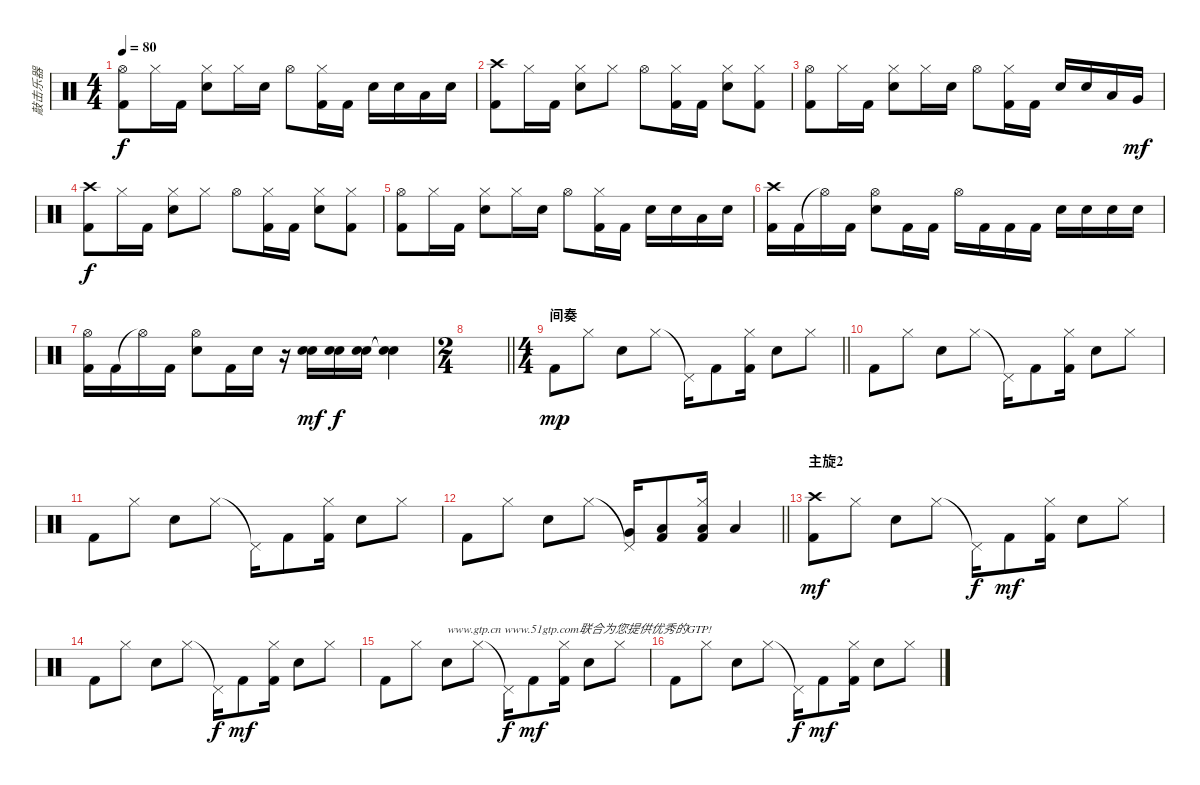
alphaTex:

\track ("敲击乐器" "敲击乐器") {instrument percussion}
\staff {score}
\articulation defaults
\ts (4 4)
\tempo 80
\clef neutral
\ks c
("Hi-Hat (open)" "Kick (hit) 2").8{dy f} "Hi-Hat (closed)".16 "Kick (hit) 2".16 ("Hi-Hat (closed)" "Snare (hit) 2").8 "Hi-Hat (closed)".16 "Snare (hit) 2".16 "Hi-Hat (open)".8 ("Hi-Hat (closed)" "Kick (hit) 2").16 "Kick (hit) 2".16 "Snare (hit) 2".16 "Snare (hit) 2".16 "Low Tom (hit)".16 "Snare (hit) 2".16 |
("Crash high (hit)" "Kick (hit) 2").8 "Hi-Hat (closed)".16 "Kick (hit) 2".16 ("Hi-Hat (closed)" "Snare (hit) 2").8 "Hi-Hat (closed)".8 "Hi-Hat (open)".8 ("Hi-Hat (closed)" "Kick (hit) 2").16 "Kick (hit) 2".16 ("Hi-Hat (closed)" "Snare (hit) 2").8 ("Hi-Hat (closed)" "Kick (hit) 2").8 |
("Hi-Hat (open)" "Kick (hit) 2").8 "Hi-Hat (closed)".16 "Kick (hit) 2".16 ("Hi-Hat (closed)" "Snare (hit) 2").8 "Hi-Hat (closed)".16 "Snare (hit) 2".16 "Hi-Hat (open)".8 ("Hi-Hat (closed)" "Kick (hit) 2").16 "Kick (hit) 2".16 "Snare (hit) 2".16 "Snare (hit) 2".16 "Low Tom (hit)".16 "Very Low Tom (hit)".16{dy mf} |
("Crash high (hit)" "Kick (hit) 2").8{dy f} "Hi-Hat (closed)".16 "Kick (hit) 2".16 ("Hi-Hat (closed)" "Snare (hit) 2").8 "Hi-Hat (closed)".8 "Hi-Hat (open)".8 ("Hi-Hat (closed)" "Kick (hit) 2").16 "Kick (hit) 2".16 ("Hi-Hat (closed)" "Snare (hit) 2").8 ("Hi-Hat (closed)" "Kick (hit) 2").8 |
("Hi-Hat (open)" "Kick (hit) 2").8 "Hi-Hat (closed)".16 "Kick (hit) 2".16 ("Hi-Hat (closed)" "Snare (hit) 2").8 "Hi-Hat (closed)".16 "Snare (hit) 2".16 "Hi-Hat (open)".8 ("Hi-Hat (closed)" "Kick (hit) 2").16 "Kick (hit) 2".16 "Snare (hit) 2".16 "Snare (hit) 2".16 "Low Tom (hit)".16 "Snare (hit) 2".16 |
("Crash high (hit)" "Kick (hit) 2").16 "Kick (hit) 2".16 "Hi-Hat (open)"{t}.16 "Kick (hit) 2".16 ("Hi-Hat (open)" "Snare (hit) 2").8 "Kick (hit) 2".16 "Kick (hit) 2".16 "Hi-Hat (open)".16 "Kick (hit) 2".16 "Kick (hit) 2".16 "Kick (hit) 2".16 "Snare (hit) 2".16 "Snare (hit) 2".16 "Snare (hit) 2".16 "Snare (hit) 2".16 |
("Hi-Hat (open)" "Kick (hit) 2").16 "Kick (hit) 2".16 "Hi-Hat (open)"{t}.16 "Kick (hit) 2".16 ("Hi-Hat (open)" "Snare (hit) 2").8 "Kick (hit) 2".16 "Snare (hit) 2".16 r.16 ("Electric Snare (hit)" "Snare (hit) 2").16{dy mf} ("Electric Snare (hit)" "Snare (hit) 2").16{dy f} ("Electric Snare (hit)" "Snare (hit) 2").16 ("Electric Snare (hit)"{t} "Snare (hit) 2"{t}).4 |
\ts (2 4)
\barLineRight lightlight
|
\ts (4 4)
\section ("" "间奏")
\barLineRight lightlight "Kick (hit) 2".8{dy mp} "Hi-Hat (closed)".8 "Snare (hit) 2".8 "Hi-Hat (closed)".8 "Pedal Hi-Hat (hit)"{t}.16 "Kick (hit) 2".8
("Hi-Hat (closed)" "Kick (hit) 2").16 "Snare (hit) 2".8 "Hi-Hat (closed)".8 |
"Kick (hit) 2".8 "Hi-Hat (closed)".8 "Snare (hit) 2".8 "Hi-Hat (closed)".8 "Pedal Hi-Hat (hit)"{t}.16 "Kick (hit) 2".8 ("Hi-Hat (closed)" "Kick (hit) 2").16 "Snare (hit) 2".8 "Hi-Hat (closed)".8 |
"Kick (hit) 2".8 "Hi-Hat (closed)".8 "Snare (hit) 2".8 "Hi-Hat (closed)".8 "Pedal Hi-Hat (hit)"{t}.16 "Kick (hit) 2".8 ("Hi-Hat (closed)" "Kick (hit) 2").16 "Snare (hit) 2".8 "Hi-Hat (closed)".8 |
\barLineRight lightlight "Kick (hit) 2".8 "Hi-Hat (closed)".8 "Snare (hit) 2".8 "Hi-Hat (closed)".8
("Pedal Hi-Hat (hit)"{t} "Very Low Tom (hit)").16 ("Low Floor Tom (hit)" "Kick (hit) 2").8 ("Hi-Hat (closed)" "Low Floor Tom (hit)" "Kick (hit) 2").16 "Low Floor Tom (hit)".4 |
\section ("" "主旋2")
("Crash high (hit)" "Kick (hit) 2").8{dy mf} "Hi-Hat (closed)".8 "Snare (hit) 2".8 "Hi-Hat (closed)".8 "Pedal Hi-Hat (hit)"{t}.16{dy f} "Kick (hit) 2".8{dy mf} ("Hi-Hat (closed)" "Kick (hit) 2").16 "Snare (hit) 2".8 "Hi-Hat (closed)".8 |
"Kick (hit) 2".8 "Hi-Hat (closed)".8 "Snare (hit) 2".8 "Hi-Hat (closed)".8 "Pedal Hi-Hat (hit)"{t}.16{dy f} "Kick (hit) 2".8{dy mf} ("Hi-Hat (closed)" "Kick (hit) 2").16 "Snare (hit) 2".8 "Hi-Hat (closed)".8 |
"Kick (hit) 2".8 "Hi-Hat (closed)".8 "Snare (hit) 2".8{txt "www.gtp.cn www.51gtp.com联合为您提供优秀的GTP!"} "Hi-Hat (closed)".8 "Pedal Hi-Hat (hit)"{t}.16{dy f} "Kick (hit) 2".8{dy mf} ("Hi-Hat (closed)" "Kick (hit) 2").16 "Snare (hit) 2".8 "Hi-Hat (closed)".8 |
"Kick (hit) 2".8 "Hi-Hat (closed)".8 "Snare (hit) 2".8 "Hi-Hat (closed)".8 "Pedal Hi-Hat (hit)"{t}.16{dy f} "Kick (hit) 2".8{dy mf} ("Hi-Hat (closed)" "Kick (hit) 2").16 "Snare (hit) 2".8 "Hi-Hat (closed)".8
